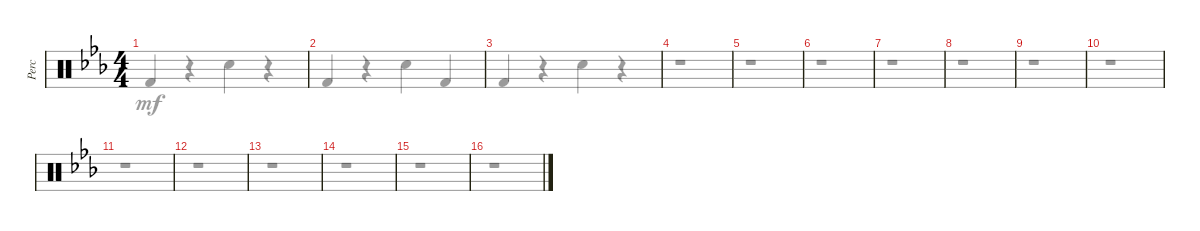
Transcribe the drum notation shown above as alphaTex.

\defaultSystemsLayout 4
\bracketExtendMode groupsimilarinstruments
\otherSystemsTrackNameOrientation horizontal
\track ("Percussions" "Perc") {instrument percussion}
\staff {score}
\articulation defaults
\voice
\ts (4 4)
\tempo (140 hide)
\clef neutral
\ks cminor
|
|
|
|
|
|
|
|
|
|
|
|
|
|
|
\voice
\clef neutral
\ks cminor "Kick (hit) 2"{acc forcenatural}.4{dy mf beam Up}
r.4{beam Up} "Snare (hit) 2"{acc forcenatural}.4{beam Down} r.4{beam Down} |
"Kick (hit) 2"{acc forcenatural}.4{beam Up} r.4{beam Up} "Snare (hit) 2"{acc forcenatural}.4{beam Down} "Kick (hit) 2"{acc forcenatural}.4{beam Up} |
"Kick (hit) 2"{acc forcenatural}.4{beam Up} r.4{beam Up} "Snare (hit) 2"{acc forcenatural}.4{beam Down} r.4{beam Down} |
r.1{beam Down} |
r.1{beam Down} |
r.1{beam Down} |
r.1{beam Down} |
r.1{beam Down} |
r.1{beam Down} |
r.1{beam Down} |
r.1{beam Down} |
r.1{beam Down} |
r.1{beam Down} |
r.1{beam Down} |
r.1{beam Down} |
r.1{beam Down}
